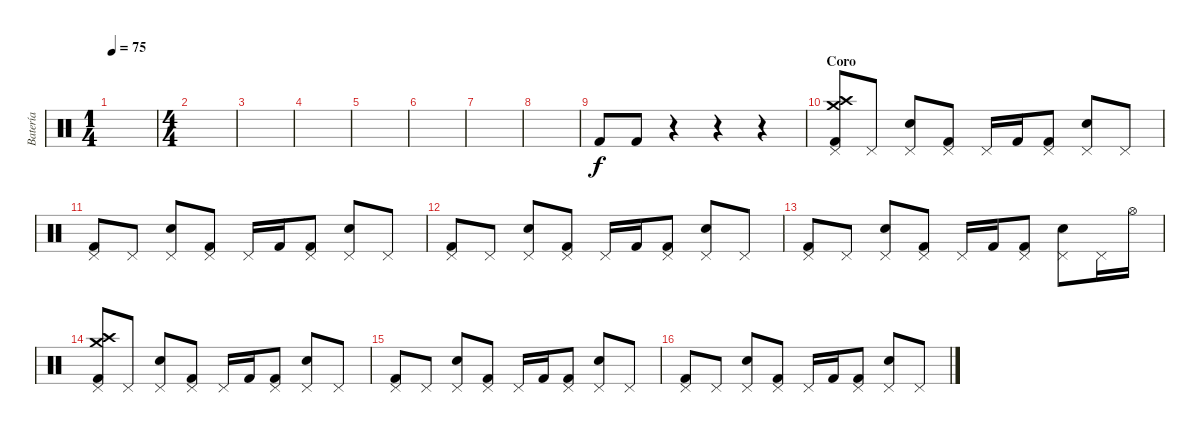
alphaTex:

\track ("Batería" "Batería") {instrument percussion}
\staff {score}
\articulation defaults
\ts (1 4)
\tempo 75
\clef neutral
\ks c
|
\ts (4 4)
|
|
|
|
|
|
|
"Kick (hit) 2".8 "Kick (hit) 2".8 r.4 r.4 r.4 |
\section ("" "Coro")
("Crash high (hit)" "Crash medium (hit)" "Pedal Hi-Hat (hit)" "Kick (hit) 2").8 "Pedal Hi-Hat (hit)".8 ("Pedal Hi-Hat (hit)" "Electric Snare (hit)").8 ("Pedal Hi-Hat (hit)" "Kick (hit) 2").8 "Pedal Hi-Hat (hit)".16 "Kick (hit) 2".16 ("Pedal Hi-Hat (hit)" "Kick (hit) 2").8 ("Pedal Hi-Hat (hit)" "Electric Snare (hit)").8 "Pedal Hi-Hat (hit)".8 |
("Pedal Hi-Hat (hit)" "Kick (hit) 2").8 "Pedal Hi-Hat (hit)".8 ("Pedal Hi-Hat (hit)" "Electric Snare (hit)").8 ("Pedal Hi-Hat (hit)" "Kick (hit) 2").8 "Pedal Hi-Hat (hit)".16 "Kick (hit) 2".16 ("Pedal Hi-Hat (hit)" "Kick (hit) 2").8 ("Pedal Hi-Hat (hit)" "Electric Snare (hit)").8 "Pedal Hi-Hat (hit)".8 |
("Pedal Hi-Hat (hit)" "Kick (hit) 2").8 "Pedal Hi-Hat (hit)".8 ("Pedal Hi-Hat (hit)" "Electric Snare (hit)").8 ("Pedal Hi-Hat (hit)" "Kick (hit) 2").8 "Pedal Hi-Hat (hit)".16 "Kick (hit) 2".16 ("Pedal Hi-Hat (hit)" "Kick (hit) 2").8 ("Pedal Hi-Hat (hit)" "Electric Snare (hit)").8 "Pedal Hi-Hat (hit)".8 |
("Pedal Hi-Hat (hit)" "Kick (hit) 2").8 "Pedal Hi-Hat (hit)".8 ("Pedal Hi-Hat (hit)" "Electric Snare (hit)").8 ("Pedal Hi-Hat (hit)" "Kick (hit) 2").8 "Pedal Hi-Hat (hit)".16 "Kick (hit) 2".16 ("Pedal Hi-Hat (hit)" "Kick (hit) 2").8 ("Pedal Hi-Hat (hit)" "Electric Snare (hit)").8 "Pedal Hi-Hat (hit)".16 "Hi-Hat (open)".16 |
("Crash high (hit)" "Crash medium (hit)" "Pedal Hi-Hat (hit)" "Kick (hit) 2").8 "Pedal Hi-Hat (hit)".8 ("Pedal Hi-Hat (hit)" "Electric Snare (hit)").8 ("Pedal Hi-Hat (hit)" "Kick (hit) 2").8 "Pedal Hi-Hat (hit)".16 "Kick (hit) 2".16 ("Pedal Hi-Hat (hit)" "Kick (hit) 2").8 ("Pedal Hi-Hat (hit)" "Electric Snare (hit)").8 "Pedal Hi-Hat (hit)".8 |
("Pedal Hi-Hat (hit)" "Kick (hit) 2").8 "Pedal Hi-Hat (hit)".8 ("Pedal Hi-Hat (hit)" "Electric Snare (hit)").8 ("Pedal Hi-Hat (hit)" "Kick (hit) 2").8 "Pedal Hi-Hat (hit)".16 "Kick (hit) 2".16 ("Pedal Hi-Hat (hit)" "Kick (hit) 2").8 ("Pedal Hi-Hat (hit)" "Electric Snare (hit)").8 "Pedal Hi-Hat (hit)".8 |
("Pedal Hi-Hat (hit)" "Kick (hit) 2").8 "Pedal Hi-Hat (hit)".8 ("Pedal Hi-Hat (hit)" "Electric Snare (hit)").8 ("Pedal Hi-Hat (hit)" "Kick (hit) 2").8 "Pedal Hi-Hat (hit)".16 "Kick (hit) 2".16 ("Pedal Hi-Hat (hit)" "Kick (hit) 2").8 ("Pedal Hi-Hat (hit)" "Electric Snare (hit)").8 "Pedal Hi-Hat (hit)".8
